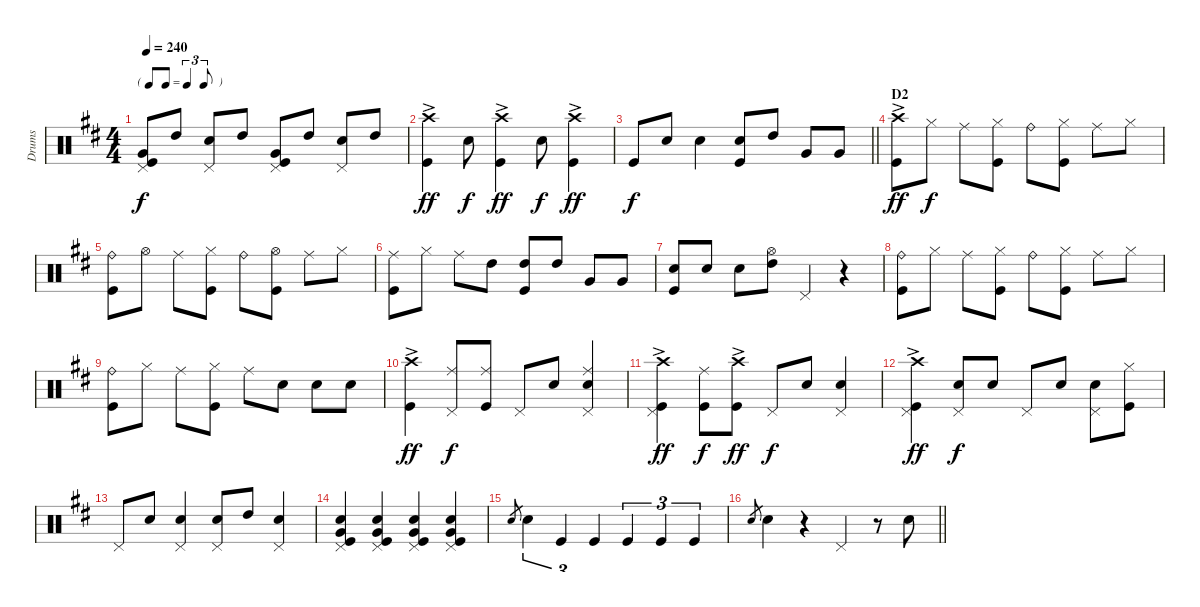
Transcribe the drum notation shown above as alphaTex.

\track ("Drums" "Drums") {instrument percussion}
\staff {score}
\articulation defaults
\ts (4 4)
\tf triplet8th
\tempo 240
\clef neutral
\ks d
("Kick (hit)" "Pedal Hi-Hat (hit)" "Very Low Tom (hit)").8{dy f} "High Tom (hit)".8 ("Snare (hit) 2" "Pedal Hi-Hat (hit)").8 "High Tom (hit)".8 ("Kick (hit)" "Pedal Hi-Hat (hit)" "Very Low Tom (hit)").8 "High Tom (hit)".8 ("Snare (hit) 2" "Pedal Hi-Hat (hit)").8 "High Tom (hit)".8 |
("Kick (hit)" "Crash high (hit)"{ac}).4{dy ff} "Snare (hit) 2".8{dy f} ("Crash high (hit)"{ac} "Kick (hit)").4{dy ff} "Snare (hit) 2".8{dy f} ("Kick (hit)" "Crash high (hit)"{ac}).4{dy ff} |
\barLineRight lightlight "Kick (hit)".8{dy f} "Snare (hit) 2".8 "Snare (hit) 2".4
("Kick (hit)" "Snare (hit) 2").8 "High Tom (hit)".8 "Very Low Tom (hit)".8 "Very Low Tom (hit)".8 |
\section ("" "D2")
("Crash high (hit)"{ac} "Kick (hit)").8{dy ff} "Hi-Hat (closed)".8{dy f} "Ride (middle)".8 ("Hi-Hat (closed)" "Kick (hit)").8 "Ride (bell)".8 ("Hi-Hat (closed)" "Kick (hit)").8 "Ride (middle)".8 "Hi-Hat (closed)".8 |
("Ride (bell)" "Kick (hit)").8 "Hi-Hat (open)".8 "Ride (middle)".8 ("Hi-Hat (closed)" "Kick (hit)").8 "Ride (bell)".8 ("Hi-Hat (open)" "Kick (hit)").8 "Ride (middle)".8 "Hi-Hat (closed)".8 |
("Ride (middle)" "Kick (hit)").8 "Hi-Hat (closed)".8 "Ride (middle)".8 "High Tom (hit)".8 ("High Tom (hit)" "Kick (hit)").8 "High Tom (hit)".8 "Very Low Tom (hit)".8 "Very Low Tom (hit)".8 |
("Snare (hit) 2" "Kick (hit)").8 "Snare (hit) 2".8 "Snare (hit) 2".8 ("High Tom (hit)" "Hi-Hat (open)").8 "Pedal Hi-Hat (hit)".4 r.4 |
("Ride (bell)" "Kick (hit)").8 "Hi-Hat (closed)".8 "Ride (middle)".8 ("Kick (hit)" "Hi-Hat (closed)").8 "Ride (bell)".8 ("Hi-Hat (closed)" "Kick (hit)").8 "Ride (middle)".8 "Hi-Hat (closed)".8 |
("Ride (bell)" "Kick (hit)").8 "Hi-Hat (closed)".8 "Ride (middle)".8 ("Hi-Hat (closed)" "Kick (hit)").8 "Ride (middle)".8 "Snare (hit) 2".8 "Snare (hit) 2".8 "Snare (hit) 2".8 |
("Crash high (hit)"{ac} "Kick (hit)").4{dy ff} ("Pedal Hi-Hat (hit)" "Ride (middle)").8{dy f} ("Kick (hit)" "Ride (middle)").8 "Pedal Hi-Hat (hit)".8 "Snare (hit) 2".8 ("Snare (hit) 2" "Pedal Hi-Hat (hit)" "Ride (middle)").4 |
("Crash high (hit)"{ac} "Pedal Hi-Hat (hit)" "Kick (hit)").4{dy ff} ("Kick (hit)" "Ride (middle)").8{dy f} ("Crash high (hit)"{ac} "Kick (hit)").8{dy ff} "Pedal Hi-Hat (hit)".8{dy f} "Snare (hit) 2".8 ("Snare (hit) 2" "Pedal Hi-Hat (hit)").4 |
("Crash high (hit)"{ac} "Kick (hit)" "Pedal Hi-Hat (hit)").4{dy ff} ("Snare (hit) 2" "Pedal Hi-Hat (hit)").8{dy f} "Snare (hit) 2".8 "Pedal Hi-Hat (hit)".8 "Snare (hit) 2".8 ("Snare (hit) 2" "Pedal Hi-Hat (hit)").8 ("Hi-Hat (closed)" "Kick (hit)").8 |
"Pedal Hi-Hat (hit)".8 "Snare (hit) 2".8 ("Snare (hit) 2" "Pedal Hi-Hat (hit)").4 ("Pedal Hi-Hat (hit)" "Snare (hit) 2").8 "High Tom (hit)".8 ("Snare (hit) 2" "Pedal Hi-Hat (hit)").4 |
("Snare (hit) 2" "Kick (hit)" "Very Low Tom (hit)" "Pedal Hi-Hat (hit)").4 ("Snare (hit) 2" "Kick (hit)" "Very Low Tom (hit)" "Pedal Hi-Hat (hit)").4 ("Snare (hit) 2" "Kick (hit)" "Very Low Tom (hit)" "Pedal Hi-Hat (hit)").4 ("Snare (hit) 2" "Kick (hit)" "Very Low Tom (hit)" "Pedal Hi-Hat (hit)").4 |
"Snare (hit) 2".8{gr} "Snare (hit) 2".4{tu (3 2)} "Kick (hit)".4{tu (3 2)} "Kick (hit)".4{tu (3 2)} "Kick (hit)".4{tu (3 2)} "Kick (hit)".4{tu (3 2)} "Kick (hit)".4{tu (3 2)} |
\barLineRight lightlight "Snare (hit) 2".8{gr} "Snare (hit) 2".4
r.4 "Pedal Hi-Hat (hit)".4 r.8 "Snare (hit) 2".8
